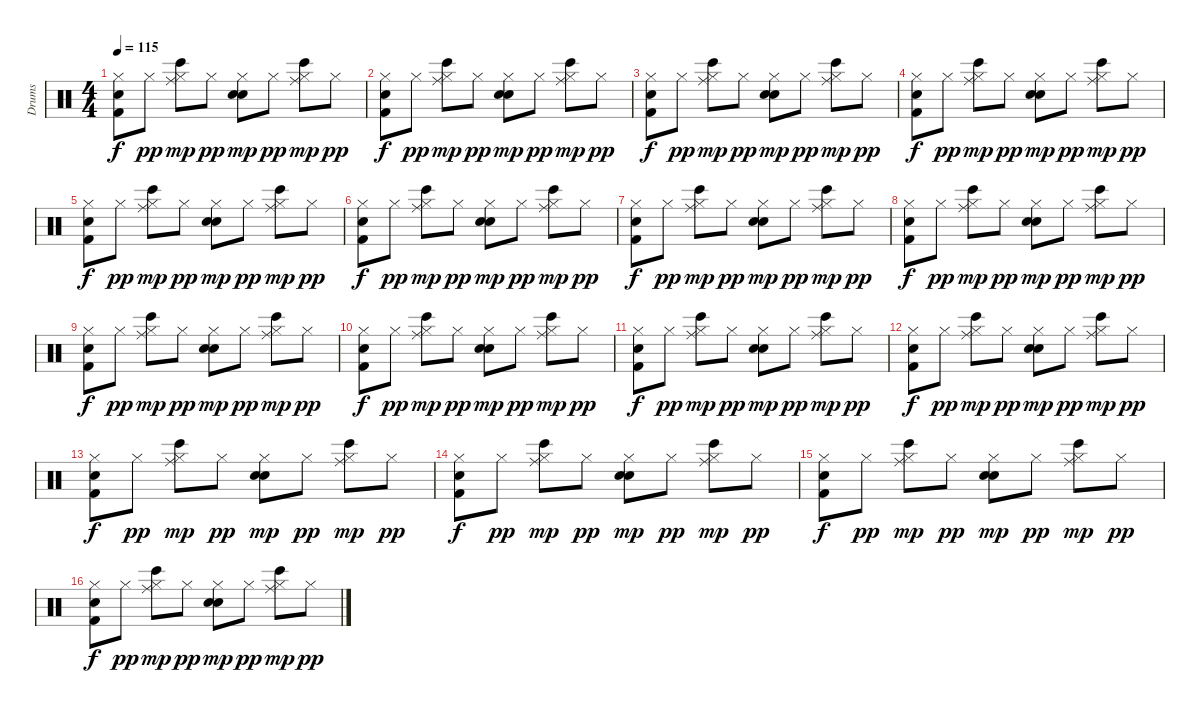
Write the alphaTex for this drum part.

\track ("Drums" "Drums") {instrument percussion}
\staff {score}
\articulation defaults
\ts (4 4)
\tempo 115
\clef neutral
\ks c
("Hi-Hat (closed)" "Hand Clap (hit)" "Kick (hit) 2").8{dy f} "Hi-Hat (closed)".8{dy pp} ("Hi-Hat (closed)" "Ride (middle)" "Bongo High (hit)").8{dy mp} "Hi-Hat (closed)".8{dy pp} ("Hi-Hat (closed)" "Hand Clap (hit)" "Electric Snare (hit)").8{dy mp} "Hi-Hat (closed)".8{dy pp} ("Hi-Hat (closed)" "Ride (middle)" "Bongo High (hit)").8{dy mp} "Hi-Hat (closed)".8{dy pp} |
("Hi-Hat (closed)" "Hand Clap (hit)" "Kick (hit) 2").8{dy f} "Hi-Hat (closed)".8{dy pp} ("Hi-Hat (closed)" "Ride (middle)" "Bongo High (hit)").8{dy mp} "Hi-Hat (closed)".8{dy pp} ("Hi-Hat (closed)" "Hand Clap (hit)" "Electric Snare (hit)").8{dy mp} "Hi-Hat (closed)".8{dy pp} ("Hi-Hat (closed)" "Ride (middle)" "Bongo High (hit)").8{dy mp} "Hi-Hat (closed)".8{dy pp} |
("Hi-Hat (closed)" "Hand Clap (hit)" "Kick (hit) 2").8{dy f} "Hi-Hat (closed)".8{dy pp} ("Hi-Hat (closed)" "Ride (middle)" "Bongo High (hit)").8{dy mp} "Hi-Hat (closed)".8{dy pp} ("Hi-Hat (closed)" "Hand Clap (hit)" "Electric Snare (hit)").8{dy mp} "Hi-Hat (closed)".8{dy pp} ("Hi-Hat (closed)" "Ride (middle)" "Bongo High (hit)").8{dy mp} "Hi-Hat (closed)".8{dy pp} |
("Hi-Hat (closed)" "Hand Clap (hit)" "Kick (hit) 2").8{dy f} "Hi-Hat (closed)".8{dy pp} ("Hi-Hat (closed)" "Ride (middle)" "Bongo High (hit)").8{dy mp} "Hi-Hat (closed)".8{dy pp} ("Hi-Hat (closed)" "Hand Clap (hit)" "Electric Snare (hit)").8{dy mp} "Hi-Hat (closed)".8{dy pp} ("Hi-Hat (closed)" "Ride (middle)" "Bongo High (hit)").8{dy mp} "Hi-Hat (closed)".8{dy pp} |
("Hi-Hat (closed)" "Hand Clap (hit)" "Kick (hit) 2").8{dy f} "Hi-Hat (closed)".8{dy pp} ("Hi-Hat (closed)" "Ride (middle)" "Bongo High (hit)").8{dy mp} "Hi-Hat (closed)".8{dy pp} ("Hi-Hat (closed)" "Hand Clap (hit)" "Electric Snare (hit)").8{dy mp} "Hi-Hat (closed)".8{dy pp} ("Hi-Hat (closed)" "Ride (middle)" "Bongo High (hit)").8{dy mp} "Hi-Hat (closed)".8{dy pp} |
("Hi-Hat (closed)" "Hand Clap (hit)" "Kick (hit) 2").8{dy f} "Hi-Hat (closed)".8{dy pp} ("Hi-Hat (closed)" "Ride (middle)" "Bongo High (hit)").8{dy mp} "Hi-Hat (closed)".8{dy pp} ("Hi-Hat (closed)" "Hand Clap (hit)" "Electric Snare (hit)").8{dy mp} "Hi-Hat (closed)".8{dy pp} ("Hi-Hat (closed)" "Ride (middle)" "Bongo High (hit)").8{dy mp} "Hi-Hat (closed)".8{dy pp} |
("Hi-Hat (closed)" "Hand Clap (hit)" "Kick (hit) 2").8{dy f} "Hi-Hat (closed)".8{dy pp} ("Hi-Hat (closed)" "Ride (middle)" "Bongo High (hit)").8{dy mp} "Hi-Hat (closed)".8{dy pp} ("Hi-Hat (closed)" "Hand Clap (hit)" "Electric Snare (hit)").8{dy mp} "Hi-Hat (closed)".8{dy pp} ("Hi-Hat (closed)" "Ride (middle)" "Bongo High (hit)").8{dy mp} "Hi-Hat (closed)".8{dy pp} |
("Hi-Hat (closed)" "Hand Clap (hit)" "Kick (hit) 2").8{dy f} "Hi-Hat (closed)".8{dy pp} ("Hi-Hat (closed)" "Ride (middle)" "Bongo High (hit)").8{dy mp} "Hi-Hat (closed)".8{dy pp} ("Hi-Hat (closed)" "Hand Clap (hit)" "Electric Snare (hit)").8{dy mp} "Hi-Hat (closed)".8{dy pp} ("Hi-Hat (closed)" "Ride (middle)" "Bongo High (hit)").8{dy mp} "Hi-Hat (closed)".8{dy pp} |
("Hi-Hat (closed)" "Hand Clap (hit)" "Kick (hit) 2").8{dy f} "Hi-Hat (closed)".8{dy pp} ("Hi-Hat (closed)" "Ride (middle)" "Bongo High (hit)").8{dy mp} "Hi-Hat (closed)".8{dy pp} ("Hi-Hat (closed)" "Hand Clap (hit)" "Electric Snare (hit)").8{dy mp} "Hi-Hat (closed)".8{dy pp} ("Hi-Hat (closed)" "Ride (middle)" "Bongo High (hit)").8{dy mp} "Hi-Hat (closed)".8{dy pp} |
("Hi-Hat (closed)" "Hand Clap (hit)" "Kick (hit) 2").8{dy f} "Hi-Hat (closed)".8{dy pp} ("Hi-Hat (closed)" "Ride (middle)" "Bongo High (hit)").8{dy mp} "Hi-Hat (closed)".8{dy pp} ("Hi-Hat (closed)" "Hand Clap (hit)" "Electric Snare (hit)").8{dy mp} "Hi-Hat (closed)".8{dy pp} ("Hi-Hat (closed)" "Ride (middle)" "Bongo High (hit)").8{dy mp} "Hi-Hat (closed)".8{dy pp} |
("Hi-Hat (closed)" "Hand Clap (hit)" "Kick (hit) 2").8{dy f} "Hi-Hat (closed)".8{dy pp} ("Hi-Hat (closed)" "Ride (middle)" "Bongo High (hit)").8{dy mp} "Hi-Hat (closed)".8{dy pp} ("Hi-Hat (closed)" "Hand Clap (hit)" "Electric Snare (hit)").8{dy mp} "Hi-Hat (closed)".8{dy pp} ("Hi-Hat (closed)" "Ride (middle)" "Bongo High (hit)").8{dy mp} "Hi-Hat (closed)".8{dy pp} |
("Hi-Hat (closed)" "Hand Clap (hit)" "Kick (hit) 2").8{dy f} "Hi-Hat (closed)".8{dy pp} ("Hi-Hat (closed)" "Ride (middle)" "Bongo High (hit)").8{dy mp} "Hi-Hat (closed)".8{dy pp} ("Hi-Hat (closed)" "Hand Clap (hit)" "Electric Snare (hit)").8{dy mp} "Hi-Hat (closed)".8{dy pp} ("Hi-Hat (closed)" "Ride (middle)" "Bongo High (hit)").8{dy mp} "Hi-Hat (closed)".8{dy pp} |
("Hi-Hat (closed)" "Hand Clap (hit)" "Kick (hit) 2").8{dy f} "Hi-Hat (closed)".8{dy pp} ("Hi-Hat (closed)" "Ride (middle)" "Bongo High (hit)").8{dy mp} "Hi-Hat (closed)".8{dy pp} ("Hi-Hat (closed)" "Hand Clap (hit)" "Electric Snare (hit)").8{dy mp} "Hi-Hat (closed)".8{dy pp} ("Hi-Hat (closed)" "Ride (middle)" "Bongo High (hit)").8{dy mp} "Hi-Hat (closed)".8{dy pp} |
("Hi-Hat (closed)" "Hand Clap (hit)" "Kick (hit) 2").8{dy f} "Hi-Hat (closed)".8{dy pp} ("Hi-Hat (closed)" "Ride (middle)" "Bongo High (hit)").8{dy mp} "Hi-Hat (closed)".8{dy pp} ("Hi-Hat (closed)" "Hand Clap (hit)" "Electric Snare (hit)").8{dy mp} "Hi-Hat (closed)".8{dy pp} ("Hi-Hat (closed)" "Ride (middle)" "Bongo High (hit)").8{dy mp} "Hi-Hat (closed)".8{dy pp} |
("Hi-Hat (closed)" "Hand Clap (hit)" "Kick (hit) 2").8{dy f} "Hi-Hat (closed)".8{dy pp} ("Hi-Hat (closed)" "Ride (middle)" "Bongo High (hit)").8{dy mp} "Hi-Hat (closed)".8{dy pp} ("Hi-Hat (closed)" "Hand Clap (hit)" "Electric Snare (hit)").8{dy mp} "Hi-Hat (closed)".8{dy pp} ("Hi-Hat (closed)" "Ride (middle)" "Bongo High (hit)").8{dy mp} "Hi-Hat (closed)".8{dy pp} |
("Hi-Hat (closed)" "Hand Clap (hit)" "Kick (hit) 2").8{dy f} "Hi-Hat (closed)".8{dy pp} ("Hi-Hat (closed)" "Ride (middle)" "Bongo High (hit)").8{dy mp} "Hi-Hat (closed)".8{dy pp} ("Hi-Hat (closed)" "Hand Clap (hit)" "Electric Snare (hit)").8{dy mp} "Hi-Hat (closed)".8{dy pp} ("Hi-Hat (closed)" "Ride (middle)" "Bongo High (hit)").8{dy mp} "Hi-Hat (closed)".8{dy pp}
